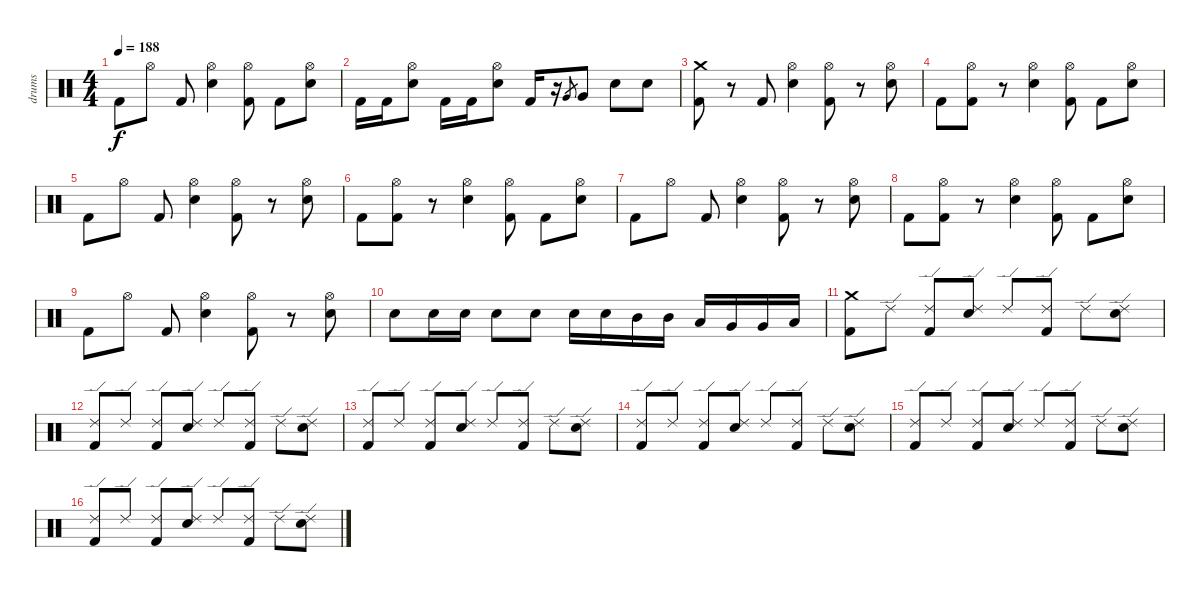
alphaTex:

\track ("drums" "drums") {instrument percussion}
\staff {score}
\articulation defaults
\ts (4 4)
\tempo 188
\clef neutral
\ks c "Kick (hit) 2".8{dy f} "Hi-Hat (open)".8 "Kick (hit) 2".8
("Hi-Hat (open)" "Electric Snare (hit)").4 ("Hi-Hat (open)" "Kick (hit) 2").8 "Kick (hit) 2".8 ("Hi-Hat (open)" "Electric Snare (hit)").8 |
"Kick (hit) 2".16 "Kick (hit) 2".16 ("Hi-Hat (open)" "Electric Snare (hit)").8 "Kick (hit) 2".16 "Kick (hit) 2".16 ("Hi-Hat (open)" "Electric Snare (hit)").8 "Kick (hit) 2".16 r.16 "Very Low Tom (hit)".8{gr} "Very Low Tom (hit)".8 "Electric Snare (hit)".8 "Electric Snare (hit)".8 |
("Crash medium (hit)" "Kick (hit) 2").8 r.8 "Kick (hit) 2".8 ("Hi-Hat (open)" "Electric Snare (hit)").4 ("Hi-Hat (open)" "Kick (hit) 2").8 r.8 ("Hi-Hat (open)" "Electric Snare (hit)").8 |
"Kick (hit) 2".8 ("Hi-Hat (open)" "Kick (hit) 2").8 r.8 ("Hi-Hat (open)" "Electric Snare (hit)").4 ("Hi-Hat (open)" "Kick (hit) 2").8 "Kick (hit) 2".8 ("Hi-Hat (open)" "Electric Snare (hit)").8 |
"Kick (hit) 2".8 "Hi-Hat (open)".8 "Kick (hit) 2".8 ("Hi-Hat (open)" "Electric Snare (hit)").4 ("Hi-Hat (open)" "Kick (hit) 2").8 r.8 ("Hi-Hat (open)" "Electric Snare (hit)").8 |
"Kick (hit) 2".8 ("Hi-Hat (open)" "Kick (hit) 2").8 r.8 ("Hi-Hat (open)" "Electric Snare (hit)").4 ("Hi-Hat (open)" "Kick (hit) 2").8 "Kick (hit) 2".8 ("Hi-Hat (open)" "Electric Snare (hit)").8 |
"Kick (hit) 2".8 "Hi-Hat (open)".8 "Kick (hit) 2".8 ("Hi-Hat (open)" "Electric Snare (hit)").4 ("Hi-Hat (open)" "Kick (hit) 2").8 r.8 ("Hi-Hat (open)" "Electric Snare (hit)").8 |
"Kick (hit) 2".8 ("Hi-Hat (open)" "Kick (hit) 2").8 r.8 ("Hi-Hat (open)" "Electric Snare (hit)").4 ("Hi-Hat (open)" "Kick (hit) 2").8 "Kick (hit) 2".8 ("Hi-Hat (open)" "Electric Snare (hit)").8 |
"Kick (hit) 2".8 "Hi-Hat (open)".8 "Kick (hit) 2".8 ("Hi-Hat (open)" "Electric Snare (hit)").4 ("Hi-Hat (open)" "Kick (hit) 2").8 r.8 ("Hi-Hat (open)" "Electric Snare (hit)").8 |
"Electric Snare (hit)".8 "Electric Snare (hit)".16 "Electric Snare (hit)".16 "Electric Snare (hit)".8 "Electric Snare (hit)".8 "Electric Snare (hit)".16 "Electric Snare (hit)".16 "Mid Tom (hit)".16 "Mid Tom (hit)".16 "Low Tom (hit)".16 "Very Low Tom (hit)".16 "Very Low Tom (hit)".16 "Low Floor Tom (hit)".16 |
("Crash medium (hit)" "Kick (hit) 2").8 "Ride (edge) 2".8 ("Ride (edge) 2" "Kick (hit) 2").8 ("Ride (edge) 2" "Electric Snare (hit)").8 "Ride (edge) 2".8 ("Ride (edge) 2" "Kick (hit) 2").8 "Ride (edge) 2".8 ("Ride (edge) 2" "Electric Snare (hit)").8 |
("Ride (edge) 2" "Kick (hit) 2").8 "Ride (edge) 2".8 ("Ride (edge) 2" "Kick (hit) 2").8 ("Ride (edge) 2" "Electric Snare (hit)").8 "Ride (edge) 2".8 ("Ride (edge) 2" "Kick (hit) 2").8 "Ride (edge) 2".8 ("Ride (edge) 2" "Electric Snare (hit)").8 |
("Ride (edge) 2" "Kick (hit) 2").8 "Ride (edge) 2".8 ("Ride (edge) 2" "Kick (hit) 2").8 ("Ride (edge) 2" "Electric Snare (hit)").8 "Ride (edge) 2".8 ("Ride (edge) 2" "Kick (hit) 2").8 "Ride (edge) 2".8 ("Ride (edge) 2" "Electric Snare (hit)").8 |
("Ride (edge) 2" "Kick (hit) 2").8 "Ride (edge) 2".8 ("Ride (edge) 2" "Kick (hit) 2").8 ("Ride (edge) 2" "Electric Snare (hit)").8 "Ride (edge) 2".8 ("Ride (edge) 2" "Kick (hit) 2").8 "Ride (edge) 2".8 ("Ride (edge) 2" "Electric Snare (hit)").8 |
("Ride (edge) 2" "Kick (hit) 2").8 "Ride (edge) 2".8 ("Ride (edge) 2" "Kick (hit) 2").8 ("Ride (edge) 2" "Electric Snare (hit)").8 "Ride (edge) 2".8 ("Ride (edge) 2" "Kick (hit) 2").8 "Ride (edge) 2".8 ("Ride (edge) 2" "Electric Snare (hit)").8 |
("Ride (edge) 2" "Kick (hit) 2").8 "Ride (edge) 2".8 ("Ride (edge) 2" "Kick (hit) 2").8 ("Ride (edge) 2" "Electric Snare (hit)").8 "Ride (edge) 2".8 ("Ride (edge) 2" "Kick (hit) 2").8 "Ride (edge) 2".8 ("Ride (edge) 2" "Electric Snare (hit)").8
